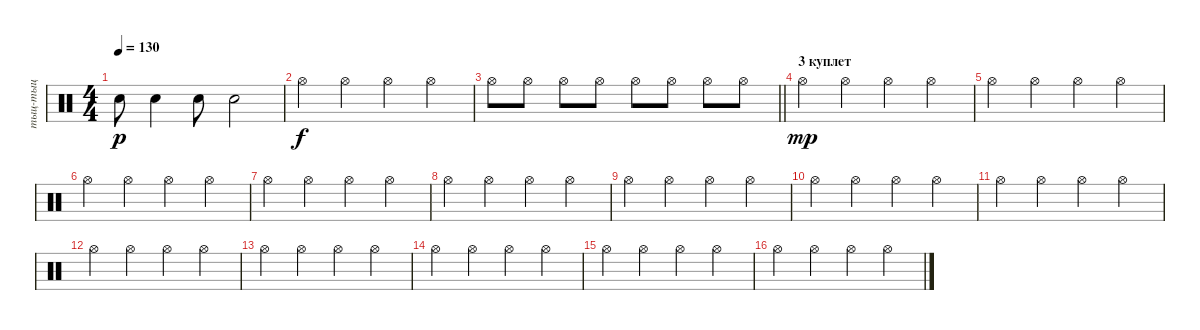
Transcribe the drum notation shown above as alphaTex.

\track ("тыц-тыц" "тыц-тыц") {instrument percussion}
\staff {score}
\articulation defaults
\ts (4 4)
\tempo 130
\clef neutral
\ks c "Snare (hit) 2".8{dy p} "Snare (hit) 2".4 "Snare (hit) 2".8 "Snare (hit) 2".2
|
"Hi-Hat (open)".4{dy f} "Hi-Hat (open)".4 "Hi-Hat (open)".4 "Hi-Hat (open)".4 |
\barLineRight lightlight "Hi-Hat (open)".8 "Hi-Hat (open)".8 "Hi-Hat (open)".8 "Hi-Hat (open)".8 "Hi-Hat (open)".8 "Hi-Hat (open)".8 "Hi-Hat (open)".8 "Hi-Hat (open)".8
|
\section ("" "3 куплет")
"Hi-Hat (open)".4{dy mp} "Hi-Hat (open)".4 "Hi-Hat (open)".4 "Hi-Hat (open)".4 |
"Hi-Hat (open)".4 "Hi-Hat (open)".4 "Hi-Hat (open)".4 "Hi-Hat (open)".4 |
"Hi-Hat (open)".4 "Hi-Hat (open)".4 "Hi-Hat (open)".4 "Hi-Hat (open)".4 |
"Hi-Hat (open)".4 "Hi-Hat (open)".4 "Hi-Hat (open)".4 "Hi-Hat (open)".4 |
"Hi-Hat (open)".4 "Hi-Hat (open)".4 "Hi-Hat (open)".4 "Hi-Hat (open)".4 |
"Hi-Hat (open)".4 "Hi-Hat (open)".4 "Hi-Hat (open)".4 "Hi-Hat (open)".4 |
"Hi-Hat (open)".4 "Hi-Hat (open)".4 "Hi-Hat (open)".4 "Hi-Hat (open)".4 |
"Hi-Hat (open)".4 "Hi-Hat (open)".4 "Hi-Hat (open)".4 "Hi-Hat (open)".4 |
"Hi-Hat (open)".4 "Hi-Hat (open)".4 "Hi-Hat (open)".4 "Hi-Hat (open)".4 |
"Hi-Hat (open)".4 "Hi-Hat (open)".4 "Hi-Hat (open)".4 "Hi-Hat (open)".4 |
"Hi-Hat (open)".4 "Hi-Hat (open)".4 "Hi-Hat (open)".4 "Hi-Hat (open)".4 |
"Hi-Hat (open)".4 "Hi-Hat (open)".4 "Hi-Hat (open)".4 "Hi-Hat (open)".4 |
"Hi-Hat (open)".4 "Hi-Hat (open)".4 "Hi-Hat (open)".4 "Hi-Hat (open)".4
